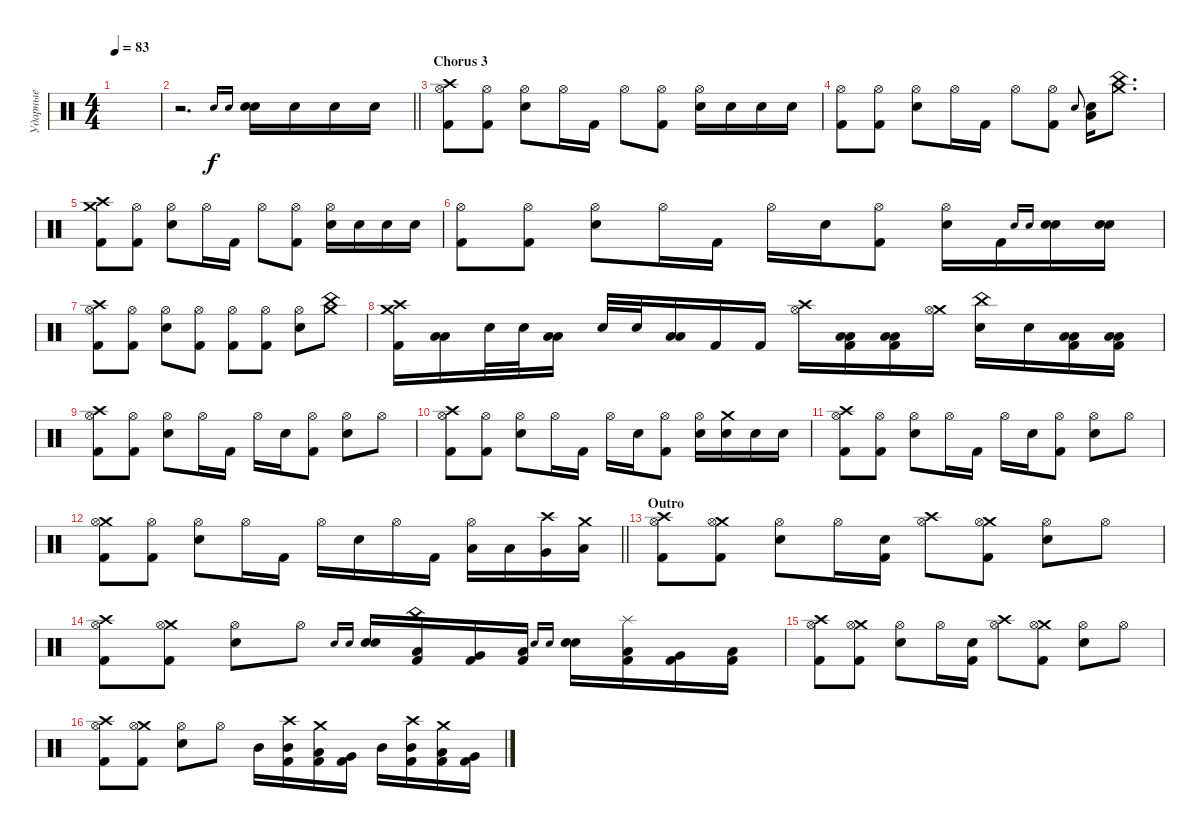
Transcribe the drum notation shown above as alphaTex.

\track ("Ударные" "Ударные") {instrument percussion}
\staff {score}
\articulation defaults
\ts (4 4)
\tempo 83
\clef neutral
\ks c
|
\barLineRight lightlight
r.2{d} "Snare (hit) 2".16{gr onbeat} "Snare (hit) 2".16{gr onbeat} ("Snare (hit) 2" "Snare (hit) 2").16 "Snare (hit) 2".16 "Snare (hit) 2".16 "Snare (hit) 2".16 |
\section ("" "Chorus 3")
("Crash high (hit)" "Hi-Hat (open)" "Kick (hit) 2").8 ("Hi-Hat (open)" "Kick (hit) 2").8 ("Hi-Hat (open)" "Snare (hit) 2").8 "Hi-Hat (open)".16 "Kick (hit) 2".16 "Hi-Hat (open)".8 ("Hi-Hat (open)" "Kick (hit) 2").8 ("Hi-Hat (open)" "Snare (hit) 2").16 "Snare (hit) 2".16 "Snare (hit) 2".16 "Snare (hit) 2".16 |
("Hi-Hat (open)" "Kick (hit) 2").8 ("Hi-Hat (open)" "Kick (hit) 2").8 ("Hi-Hat (open)" "Snare (hit) 2").8 "Hi-Hat (open)".16 "Kick (hit) 2".16 "Hi-Hat (open)".8 ("Hi-Hat (open)" "Kick (hit) 2").8 "Snare (hit) 2".8{gr onbeat} ("Snare (hit) 2" "Low Floor Tom (hit)").16 ("Crash medium (hit)" "China (hit)").8{d} |
("Crash high (hit)" "Crash medium (hit)" "Kick (hit) 2").8 ("Hi-Hat (open)" "Kick (hit) 2").8 ("Hi-Hat (open)" "Snare (hit) 2").8 "Hi-Hat (open)".16 "Kick (hit) 2".16 "Hi-Hat (open)".8 ("Hi-Hat (open)" "Kick (hit) 2").8 ("Hi-Hat (open)" "Snare (hit) 2").16 "Snare (hit) 2".16 "Snare (hit) 2".16 "Snare (hit) 2".16 |
("Hi-Hat (open)" "Kick (hit) 2").8 ("Hi-Hat (open)" "Kick (hit) 2").8 ("Hi-Hat (open)" "Snare (hit) 2").8 "Hi-Hat (open)".16 "Kick (hit) 2".16 "Hi-Hat (open)".16 "Snare (hit) 2".16 ("Hi-Hat (open)" "Kick (hit) 2").8 ("Hi-Hat (open)" "Snare (hit) 2").16 "Kick (hit) 2".16 "Snare (hit) 2".16{gr onbeat} "Snare (hit) 2".16{gr onbeat} ("Snare (hit) 2" "Snare (hit) 2").16 ("Snare (hit) 2" "Snare (hit) 2").16 |
("Crash high (hit)" "Hi-Hat (open)" "Kick (hit) 2").8 ("Hi-Hat (open)" "Kick (hit) 2").8 ("Hi-Hat (open)" "Snare (hit) 2").8 ("Hi-Hat (open)" "Kick (hit) 2").8 ("Hi-Hat (open)" "Kick (hit) 2").8 ("Hi-Hat (open)" "Kick (hit) 2").8 ("Hi-Hat (open)" "Snare (hit) 2").8 ("Crash medium (hit)" "China (hit)").8 |
("Crash high (hit)" "Crash medium (hit)" "Kick (hit) 2").16 ("Low Tom (hit)" "Low Floor Tom (hit)").16 "Snare (hit) 2".32 "Snare (hit) 2".32 ("Low Tom (hit)" "Low Floor Tom (hit)").16 "Snare (hit) 2".32 "Snare (hit) 2".32 ("Low Tom (hit)" "Low Floor Tom (hit)").16 "Kick (hit) 2".16 "Kick (hit) 2".16 ("Crash high (hit)" "Hi-Hat (open)").16 ("Low Tom (hit)" "Low Floor Tom (hit)" "Kick (hit) 2").16 ("Low Tom (hit)" "Low Floor Tom (hit)" "Kick (hit) 2").16 ("Crash medium (hit)" "Hi-Hat (open)").16 ("China (hit)" "Snare (hit) 2").16 "Snare (hit) 2".16 ("Low Tom (hit)" "Low Floor Tom (hit)" "Kick (hit) 2").16 ("Low Tom (hit)" "Low Floor Tom (hit)" "Kick (hit) 2").16 |
("Crash high (hit)" "Hi-Hat (open)" "Kick (hit) 2").8 ("Hi-Hat (open)" "Kick (hit) 2").8 ("Hi-Hat (open)" "Snare (hit) 2").8 "Hi-Hat (open)".16 "Kick (hit) 2".16 "Hi-Hat (open)".16 "Snare (hit) 2".16 ("Hi-Hat (open)" "Kick (hit) 2").8 ("Hi-Hat (open)" "Snare (hit) 2").8 "Hi-Hat (open)".8 |
("Crash high (hit)" "Hi-Hat (open)" "Kick (hit) 2").8 ("Hi-Hat (open)" "Kick (hit) 2").8 ("Hi-Hat (open)" "Snare (hit) 2").8 "Hi-Hat (open)".16 "Kick (hit) 2".16 "Hi-Hat (open)".16 "Snare (hit) 2".16 ("Hi-Hat (open)" "Kick (hit) 2").8 ("Hi-Hat (open)" "Snare (hit) 2").16 ("Crash medium (hit)" "Snare (hit) 2").16 "Snare (hit) 2".16 "Snare (hit) 2".16 |
("Crash high (hit)" "Hi-Hat (open)" "Kick (hit) 2").8 ("Hi-Hat (open)" "Kick (hit) 2").8 ("Hi-Hat (open)" "Snare (hit) 2").8 "Hi-Hat (open)".16 "Kick (hit) 2".16 "Hi-Hat (open)".16 "Snare (hit) 2".16 ("Hi-Hat (open)" "Kick (hit) 2").8 ("Hi-Hat (open)" "Snare (hit) 2").8 "Hi-Hat (open)".8 |
\barLineRight lightlight
("Crash medium (hit)" "Hi-Hat (open)" "Kick (hit) 2").8 ("Hi-Hat (open)" "Kick (hit) 2").8 ("Hi-Hat (open)" "Snare (hit) 2").8 "Hi-Hat (open)".16 "Kick (hit) 2".16 "Hi-Hat (open)".16 "Snare (hit) 2".16 "Hi-Hat (open)".16 "Kick (hit) 2".16 ("Hi-Hat (open)" "Low Tom (hit)").16 "Low Tom (hit)".16 ("Crash high (hit)" "Very Low Tom (hit)").16 ("Crash medium (hit)" "Low Floor Tom (hit)").16 |
\section ("" "Outro")
("Crash high (hit)" "Hi-Hat (open)" "Kick (hit) 2").8 ("Crash medium (hit)" "Hi-Hat (open)" "Kick (hit) 2").8 ("Hi-Hat (open)" "Snare (hit) 2").8 "Hi-Hat (open)".16 ("Snare (hit) 2" "Kick (hit) 2").16 ("Crash high (hit)" "Hi-Hat (open)").8 ("Crash medium (hit)" "Hi-Hat (open)" "Kick (hit) 2").8 ("Hi-Hat (open)" "Snare (hit) 2").8 "Hi-Hat (open)".8 |
("Crash high (hit)" "Hi-Hat (open)" "Kick (hit) 2").8 ("Crash medium (hit)" "Hi-Hat (open)" "Kick (hit) 2").8 ("Hi-Hat (open)" "Snare (hit) 2").8 "Hi-Hat (open)".8 "Snare (hit) 2".16{gr onbeat} "Snare (hit) 2".16{gr onbeat} ("Snare (hit) 2" "Snare (hit) 2").16 ("China (hit)" "Low Tom (hit)" "Kick (hit) 2").16 ("Very Low Tom (hit)" "Kick (hit) 2").16 ("Low Floor Tom (hit)" "Kick (hit) 2").16 "Snare (hit) 2".16{gr onbeat} "Snare (hit) 2".16{gr onbeat} ("Snare (hit) 2" "Snare (hit) 2").16 ("Splash (hit)" "Low Tom (hit)" "Kick (hit) 2").16 ("Very Low Tom (hit)" "Kick (hit) 2").16 ("Low Floor Tom (hit)" "Kick (hit) 2").16 |
("Crash high (hit)" "Hi-Hat (open)" "Kick (hit) 2").8 ("Crash medium (hit)" "Hi-Hat (open)" "Kick (hit) 2").8 ("Hi-Hat (open)" "Snare (hit) 2").8 "Hi-Hat (open)".16 ("Snare (hit) 2" "Kick (hit) 2").16 ("Crash high (hit)" "Hi-Hat (open)").8 ("Crash medium (hit)" "Hi-Hat (open)" "Kick (hit) 2").8 ("Hi-Hat (open)" "Snare (hit) 2").8 "Hi-Hat (open)".8 |
("Crash high (hit)" "Hi-Hat (open)" "Kick (hit) 2").8 ("Crash medium (hit)" "Hi-Hat (open)" "Kick (hit) 2").8 ("Hi-Hat (open)" "Snare (hit) 2").8 "Hi-Hat (open)".8 "Mid Tom (hit)".16 ("Crash high (hit)" "Mid Tom (hit)" "Kick (hit) 2").16 ("Crash medium (hit)" "Low Tom (hit)" "Kick (hit) 2").16 ("Very Low Tom (hit)" "Kick (hit) 2").16 "Mid Tom (hit)".16 ("Crash high (hit)" "Mid Tom (hit)" "Kick (hit) 2").16 ("Crash medium (hit)" "Low Tom (hit)" "Kick (hit) 2").16 ("Very Low Tom (hit)" "Kick (hit) 2").16
